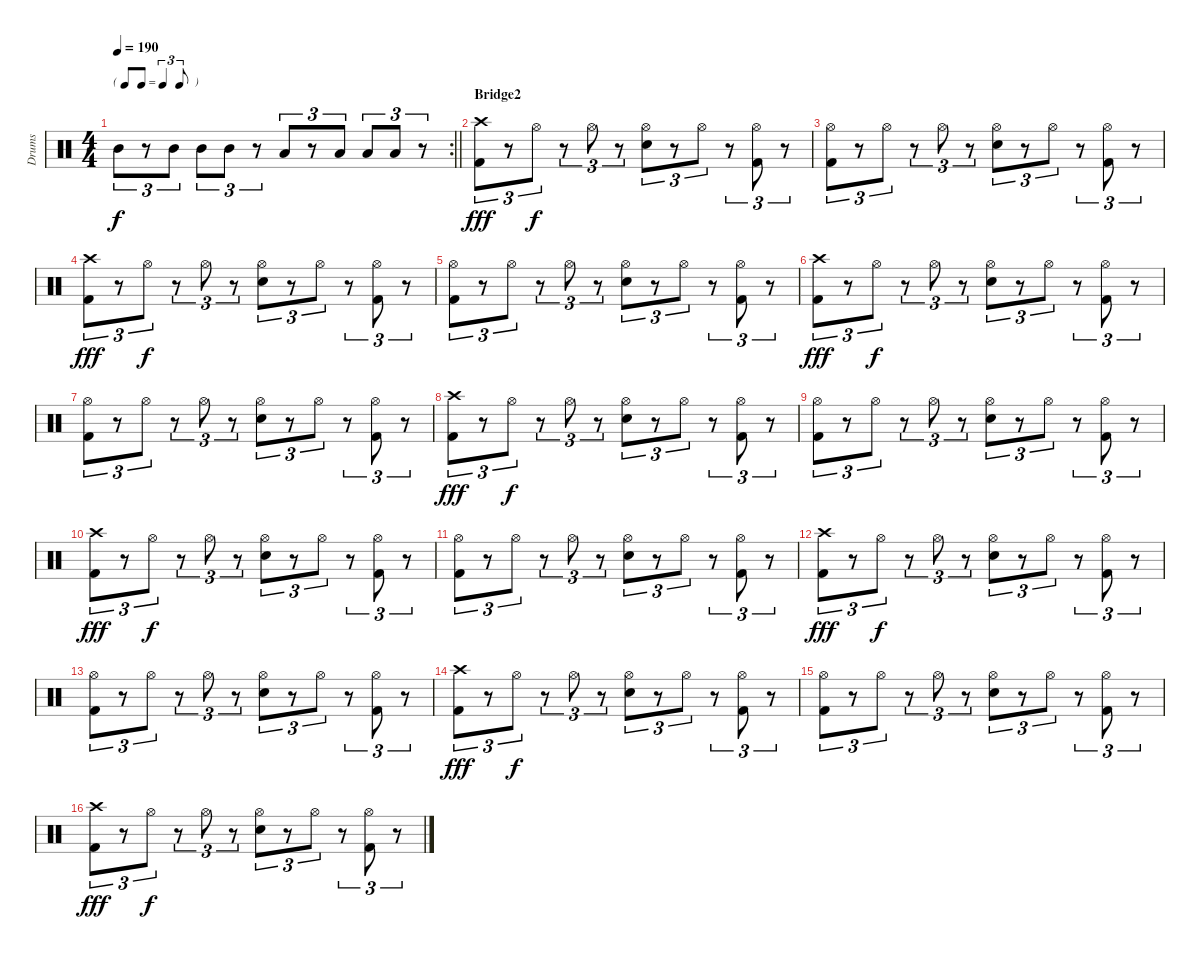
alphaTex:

\track ("Drums" "Drums") {instrument percussion}
\staff {score}
\articulation defaults
\rc 2
\ts (4 4)
\tf triplet8th
\tempo 190
\clef neutral
\barLineRight lightlight
\ks c "Mid Tom (hit)".8{tu (3 2) dy f}
r.8{tu (3 2)} "Mid Tom (hit)".8{tu (3 2)} "Mid Tom (hit)".8{tu (3 2)} "Mid Tom (hit)".8{tu (3 2)} r.8{tu (3 2)} "Low Tom (hit)".8{tu (3 2)} r.8{tu (3 2)} "Low Tom (hit)".8{tu (3 2)} "Low Tom (hit)".8{tu (3 2)} "Low Tom (hit)".8{tu (3 2)} r.8{tu (3 2)} |
\section ("" "Bridge2")
("Crash high (hit)" "Kick (hit) 2").8{tu (3 2) dy fff} r.8{tu (3 2)} "Hi-Hat (open)".8{tu (3 2) dy f} r.8{tu (3 2)} "Hi-Hat (open)".8{tu (3 2)} r.8{tu (3 2)} ("Hi-Hat (open)" "Electric Snare (hit)").8{tu (3 2)} r.8{tu (3 2)} "Hi-Hat (open)".8{tu (3 2)} r.8{tu (3 2)} ("Hi-Hat (open)" "Kick (hit) 2").8{tu (3 2)} r.8{tu (3 2)} |
("Hi-Hat (open)" "Kick (hit) 2").8{tu (3 2)} r.8{tu (3 2)} "Hi-Hat (open)".8{tu (3 2)} r.8{tu (3 2)} "Hi-Hat (open)".8{tu (3 2)} r.8{tu (3 2)} ("Hi-Hat (open)" "Electric Snare (hit)").8{tu (3 2)} r.8{tu (3 2)} "Hi-Hat (open)".8{tu (3 2)} r.8{tu (3 2)} ("Hi-Hat (open)" "Kick (hit) 2").8{tu (3 2)} r.8{tu (3 2)} |
("Crash high (hit)" "Kick (hit) 2").8{tu (3 2) dy fff} r.8{tu (3 2)} "Hi-Hat (open)".8{tu (3 2) dy f} r.8{tu (3 2)} "Hi-Hat (open)".8{tu (3 2)} r.8{tu (3 2)} ("Hi-Hat (open)" "Electric Snare (hit)").8{tu (3 2)} r.8{tu (3 2)} "Hi-Hat (open)".8{tu (3 2)} r.8{tu (3 2)} ("Hi-Hat (open)" "Kick (hit) 2").8{tu (3 2)} r.8{tu (3 2)} |
("Hi-Hat (open)" "Kick (hit) 2").8{tu (3 2)} r.8{tu (3 2)} "Hi-Hat (open)".8{tu (3 2)} r.8{tu (3 2)} "Hi-Hat (open)".8{tu (3 2)} r.8{tu (3 2)} ("Hi-Hat (open)" "Electric Snare (hit)").8{tu (3 2)} r.8{tu (3 2)} "Hi-Hat (open)".8{tu (3 2)} r.8{tu (3 2)} ("Hi-Hat (open)" "Kick (hit) 2").8{tu (3 2)} r.8{tu (3 2)} |
("Crash high (hit)" "Kick (hit) 2").8{tu (3 2) dy fff} r.8{tu (3 2)} "Hi-Hat (open)".8{tu (3 2) dy f} r.8{tu (3 2)} "Hi-Hat (open)".8{tu (3 2)} r.8{tu (3 2)} ("Hi-Hat (open)" "Electric Snare (hit)").8{tu (3 2)} r.8{tu (3 2)} "Hi-Hat (open)".8{tu (3 2)} r.8{tu (3 2)} ("Hi-Hat (open)" "Kick (hit) 2").8{tu (3 2)} r.8{tu (3 2)} |
("Hi-Hat (open)" "Kick (hit) 2").8{tu (3 2)} r.8{tu (3 2)} "Hi-Hat (open)".8{tu (3 2)} r.8{tu (3 2)} "Hi-Hat (open)".8{tu (3 2)} r.8{tu (3 2)} ("Hi-Hat (open)" "Electric Snare (hit)").8{tu (3 2)} r.8{tu (3 2)} "Hi-Hat (open)".8{tu (3 2)} r.8{tu (3 2)} ("Hi-Hat (open)" "Kick (hit) 2").8{tu (3 2)} r.8{tu (3 2)} |
("Crash high (hit)" "Kick (hit) 2").8{tu (3 2) dy fff} r.8{tu (3 2)} "Hi-Hat (open)".8{tu (3 2) dy f} r.8{tu (3 2)} "Hi-Hat (open)".8{tu (3 2)} r.8{tu (3 2)} ("Hi-Hat (open)" "Electric Snare (hit)").8{tu (3 2)} r.8{tu (3 2)} "Hi-Hat (open)".8{tu (3 2)} r.8{tu (3 2)} ("Hi-Hat (open)" "Kick (hit) 2").8{tu (3 2)} r.8{tu (3 2)} |
("Hi-Hat (open)" "Kick (hit) 2").8{tu (3 2)} r.8{tu (3 2)} "Hi-Hat (open)".8{tu (3 2)} r.8{tu (3 2)} "Hi-Hat (open)".8{tu (3 2)} r.8{tu (3 2)} ("Hi-Hat (open)" "Electric Snare (hit)").8{tu (3 2)} r.8{tu (3 2)} "Hi-Hat (open)".8{tu (3 2)} r.8{tu (3 2)} ("Hi-Hat (open)" "Kick (hit) 2").8{tu (3 2)} r.8{tu (3 2)} |
("Crash high (hit)" "Kick (hit) 2").8{tu (3 2) dy fff} r.8{tu (3 2)} "Hi-Hat (open)".8{tu (3 2) dy f} r.8{tu (3 2)} "Hi-Hat (open)".8{tu (3 2)} r.8{tu (3 2)} ("Hi-Hat (open)" "Electric Snare (hit)").8{tu (3 2)} r.8{tu (3 2)} "Hi-Hat (open)".8{tu (3 2)} r.8{tu (3 2)} ("Hi-Hat (open)" "Kick (hit) 2").8{tu (3 2)} r.8{tu (3 2)} |
("Hi-Hat (open)" "Kick (hit) 2").8{tu (3 2)} r.8{tu (3 2)} "Hi-Hat (open)".8{tu (3 2)} r.8{tu (3 2)} "Hi-Hat (open)".8{tu (3 2)} r.8{tu (3 2)} ("Hi-Hat (open)" "Electric Snare (hit)").8{tu (3 2)} r.8{tu (3 2)} "Hi-Hat (open)".8{tu (3 2)} r.8{tu (3 2)} ("Hi-Hat (open)" "Kick (hit) 2").8{tu (3 2)} r.8{tu (3 2)} |
("Crash high (hit)" "Kick (hit) 2").8{tu (3 2) dy fff} r.8{tu (3 2)} "Hi-Hat (open)".8{tu (3 2) dy f} r.8{tu (3 2)} "Hi-Hat (open)".8{tu (3 2)} r.8{tu (3 2)} ("Hi-Hat (open)" "Electric Snare (hit)").8{tu (3 2)} r.8{tu (3 2)} "Hi-Hat (open)".8{tu (3 2)} r.8{tu (3 2)} ("Hi-Hat (open)" "Kick (hit) 2").8{tu (3 2)} r.8{tu (3 2)} |
("Hi-Hat (open)" "Kick (hit) 2").8{tu (3 2)} r.8{tu (3 2)} "Hi-Hat (open)".8{tu (3 2)} r.8{tu (3 2)} "Hi-Hat (open)".8{tu (3 2)} r.8{tu (3 2)} ("Hi-Hat (open)" "Electric Snare (hit)").8{tu (3 2)} r.8{tu (3 2)} "Hi-Hat (open)".8{tu (3 2)} r.8{tu (3 2)} ("Hi-Hat (open)" "Kick (hit) 2").8{tu (3 2)} r.8{tu (3 2)} |
("Crash high (hit)" "Kick (hit) 2").8{tu (3 2) dy fff} r.8{tu (3 2)} "Hi-Hat (open)".8{tu (3 2) dy f} r.8{tu (3 2)} "Hi-Hat (open)".8{tu (3 2)} r.8{tu (3 2)} ("Hi-Hat (open)" "Electric Snare (hit)").8{tu (3 2)} r.8{tu (3 2)} "Hi-Hat (open)".8{tu (3 2)} r.8{tu (3 2)} ("Hi-Hat (open)" "Kick (hit) 2").8{tu (3 2)} r.8{tu (3 2)} |
("Hi-Hat (open)" "Kick (hit) 2").8{tu (3 2)} r.8{tu (3 2)} "Hi-Hat (open)".8{tu (3 2)} r.8{tu (3 2)} "Hi-Hat (open)".8{tu (3 2)} r.8{tu (3 2)} ("Hi-Hat (open)" "Electric Snare (hit)").8{tu (3 2)} r.8{tu (3 2)} "Hi-Hat (open)".8{tu (3 2)} r.8{tu (3 2)} ("Hi-Hat (open)" "Kick (hit) 2").8{tu (3 2)} r.8{tu (3 2)} |
("Crash high (hit)" "Kick (hit) 2").8{tu (3 2) dy fff} r.8{tu (3 2)} "Hi-Hat (open)".8{tu (3 2) dy f} r.8{tu (3 2)} "Hi-Hat (open)".8{tu (3 2)} r.8{tu (3 2)} ("Hi-Hat (open)" "Electric Snare (hit)").8{tu (3 2)} r.8{tu (3 2)} "Hi-Hat (open)".8{tu (3 2)} r.8{tu (3 2)} ("Hi-Hat (open)" "Kick (hit) 2").8{tu (3 2)} r.8{tu (3 2)}
